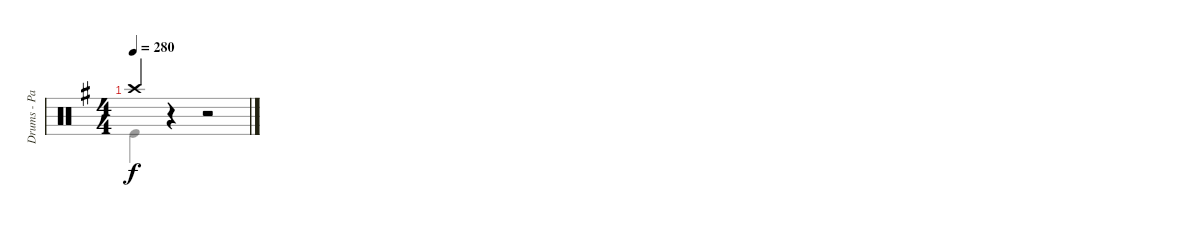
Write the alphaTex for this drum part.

\track ("Drums - Patrick Johansson" "Drums - Pa") {instrument percussion}
\staff {score}
\articulation defaults
\voice
\ts (4 4)
\tempo 280
\clef neutral
\ks eminor "Crash high (hit)".4{dy f}
r.4 r.2
\voice
\clef neutral
\ottava regular
\simile none
\ks eminor "Kick (hit)".4{dy f}
r.4 r.2
